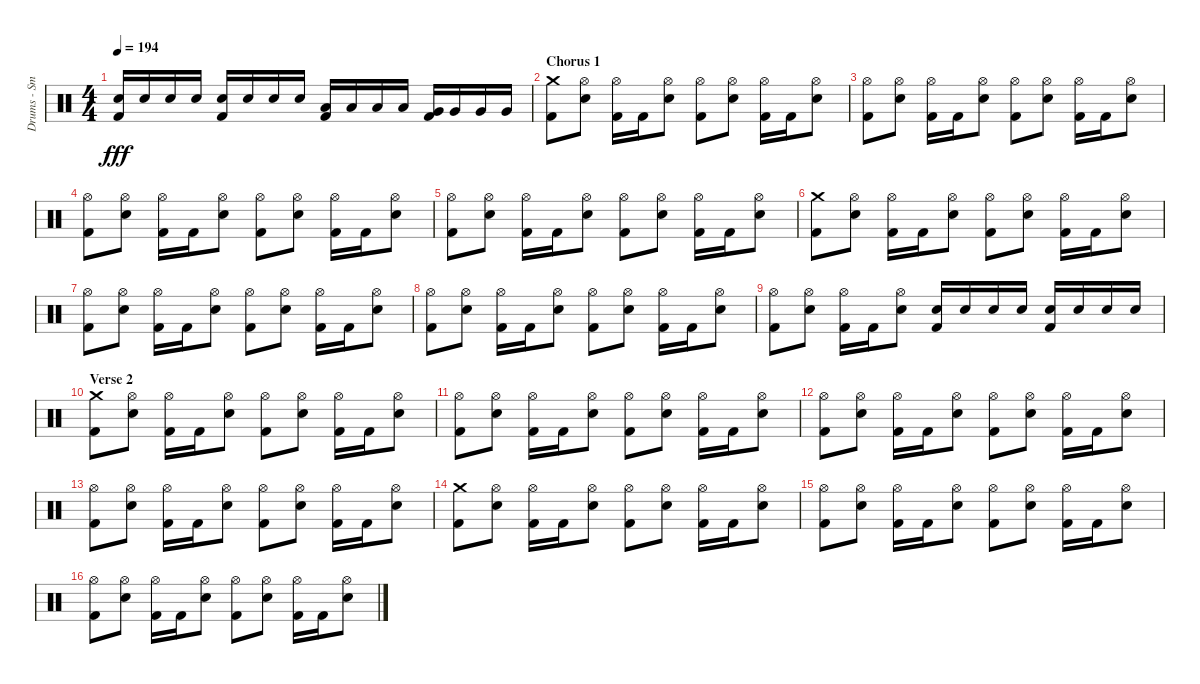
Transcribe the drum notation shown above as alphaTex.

\track ("Drums - Smelly" "Drums - Sm") {instrument percussion}
\staff {score}
\articulation defaults
\ts (4 4)
\tempo 194
\clef neutral
\ks c
("Electric Snare (hit)" "Kick (hit) 2").16{dy fff} "Electric Snare (hit)".16 "Electric Snare (hit)".16 "Electric Snare (hit)".16 ("Electric Snare (hit)" "Kick (hit) 2").16 "Electric Snare (hit)".16 "Electric Snare (hit)".16 "Electric Snare (hit)".16 ("Low Tom (hit)" "Kick (hit) 2").16 "Low Tom (hit)".16 "Low Tom (hit)".16 "Low Tom (hit)".16 ("Very Low Tom (hit)" "Kick (hit) 2").16 "Very Low Tom (hit)".16 "Very Low Tom (hit)".16 "Very Low Tom (hit)".16 |
\section ("" "Chorus 1")
("Kick (hit) 2" "Crash medium (hit)").8 ("Electric Snare (hit)" "Hi-Hat (open)").8 ("Kick (hit) 2" "Hi-Hat (open)").16 "Kick (hit) 2".16 ("Electric Snare (hit)" "Hi-Hat (open)").8 ("Kick (hit) 2" "Hi-Hat (open)").8 ("Electric Snare (hit)" "Hi-Hat (open)").8 ("Kick (hit) 2" "Hi-Hat (open)").16 "Kick (hit) 2".16 ("Electric Snare (hit)" "Hi-Hat (open)").8 |
("Kick (hit) 2" "Hi-Hat (open)").8 ("Electric Snare (hit)" "Hi-Hat (open)").8 ("Kick (hit) 2" "Hi-Hat (open)").16 "Kick (hit) 2".16 ("Electric Snare (hit)" "Hi-Hat (open)").8 ("Kick (hit) 2" "Hi-Hat (open)").8 ("Electric Snare (hit)" "Hi-Hat (open)").8 ("Kick (hit) 2" "Hi-Hat (open)").16 "Kick (hit) 2".16 ("Electric Snare (hit)" "Hi-Hat (open)").8 |
("Kick (hit) 2" "Hi-Hat (open)").8 ("Electric Snare (hit)" "Hi-Hat (open)").8 ("Kick (hit) 2" "Hi-Hat (open)").16 "Kick (hit) 2".16 ("Electric Snare (hit)" "Hi-Hat (open)").8 ("Kick (hit) 2" "Hi-Hat (open)").8 ("Electric Snare (hit)" "Hi-Hat (open)").8 ("Kick (hit) 2" "Hi-Hat (open)").16 "Kick (hit) 2".16 ("Electric Snare (hit)" "Hi-Hat (open)").8 |
("Kick (hit) 2" "Hi-Hat (open)").8 ("Electric Snare (hit)" "Hi-Hat (open)").8 ("Kick (hit) 2" "Hi-Hat (open)").16 "Kick (hit) 2".16 ("Electric Snare (hit)" "Hi-Hat (open)").8 ("Kick (hit) 2" "Hi-Hat (open)").8 ("Electric Snare (hit)" "Hi-Hat (open)").8 ("Kick (hit) 2" "Hi-Hat (open)").16 "Kick (hit) 2".16 ("Electric Snare (hit)" "Hi-Hat (open)").8 |
("Kick (hit) 2" "Crash medium (hit)").8 ("Electric Snare (hit)" "Hi-Hat (open)").8 ("Kick (hit) 2" "Hi-Hat (open)").16 "Kick (hit) 2".16 ("Electric Snare (hit)" "Hi-Hat (open)").8 ("Kick (hit) 2" "Hi-Hat (open)").8 ("Electric Snare (hit)" "Hi-Hat (open)").8 ("Kick (hit) 2" "Hi-Hat (open)").16 "Kick (hit) 2".16 ("Electric Snare (hit)" "Hi-Hat (open)").8 |
("Kick (hit) 2" "Hi-Hat (open)").8 ("Electric Snare (hit)" "Hi-Hat (open)").8 ("Kick (hit) 2" "Hi-Hat (open)").16 "Kick (hit) 2".16 ("Electric Snare (hit)" "Hi-Hat (open)").8 ("Kick (hit) 2" "Hi-Hat (open)").8 ("Electric Snare (hit)" "Hi-Hat (open)").8 ("Kick (hit) 2" "Hi-Hat (open)").16 "Kick (hit) 2".16 ("Electric Snare (hit)" "Hi-Hat (open)").8 |
("Kick (hit) 2" "Hi-Hat (open)").8 ("Electric Snare (hit)" "Hi-Hat (open)").8 ("Kick (hit) 2" "Hi-Hat (open)").16 "Kick (hit) 2".16 ("Electric Snare (hit)" "Hi-Hat (open)").8 ("Kick (hit) 2" "Hi-Hat (open)").8 ("Electric Snare (hit)" "Hi-Hat (open)").8 ("Kick (hit) 2" "Hi-Hat (open)").16 "Kick (hit) 2".16 ("Electric Snare (hit)" "Hi-Hat (open)").8 |
("Kick (hit) 2" "Hi-Hat (open)").8 ("Electric Snare (hit)" "Hi-Hat (open)").8 ("Kick (hit) 2" "Hi-Hat (open)").16 "Kick (hit) 2".16 ("Electric Snare (hit)" "Hi-Hat (open)").8 ("Electric Snare (hit)" "Kick (hit) 2").16 "Electric Snare (hit)".16 "Electric Snare (hit)".16 "Electric Snare (hit)".16 ("Electric Snare (hit)" "Kick (hit) 2").16 "Electric Snare (hit)".16 "Electric Snare (hit)".16 "Electric Snare (hit)".16 |
\section ("" "Verse 2")
("Kick (hit) 2" "Crash medium (hit)").8 ("Electric Snare (hit)" "Hi-Hat (open)").8 ("Kick (hit) 2" "Hi-Hat (open)").16 "Kick (hit) 2".16 ("Electric Snare (hit)" "Hi-Hat (open)").8 ("Kick (hit) 2" "Hi-Hat (open)").8 ("Electric Snare (hit)" "Hi-Hat (open)").8 ("Kick (hit) 2" "Hi-Hat (open)").16 "Kick (hit) 2".16 ("Electric Snare (hit)" "Hi-Hat (open)").8 |
("Kick (hit) 2" "Hi-Hat (open)").8 ("Electric Snare (hit)" "Hi-Hat (open)").8 ("Kick (hit) 2" "Hi-Hat (open)").16 "Kick (hit) 2".16 ("Electric Snare (hit)" "Hi-Hat (open)").8 ("Kick (hit) 2" "Hi-Hat (open)").8 ("Electric Snare (hit)" "Hi-Hat (open)").8 ("Kick (hit) 2" "Hi-Hat (open)").16 "Kick (hit) 2".16 ("Electric Snare (hit)" "Hi-Hat (open)").8 |
("Kick (hit) 2" "Hi-Hat (open)").8 ("Electric Snare (hit)" "Hi-Hat (open)").8 ("Kick (hit) 2" "Hi-Hat (open)").16 "Kick (hit) 2".16 ("Electric Snare (hit)" "Hi-Hat (open)").8 ("Kick (hit) 2" "Hi-Hat (open)").8 ("Electric Snare (hit)" "Hi-Hat (open)").8 ("Kick (hit) 2" "Hi-Hat (open)").16 "Kick (hit) 2".16 ("Electric Snare (hit)" "Hi-Hat (open)").8 |
("Kick (hit) 2" "Hi-Hat (open)").8 ("Electric Snare (hit)" "Hi-Hat (open)").8 ("Kick (hit) 2" "Hi-Hat (open)").16 "Kick (hit) 2".16 ("Electric Snare (hit)" "Hi-Hat (open)").8 ("Kick (hit) 2" "Hi-Hat (open)").8 ("Electric Snare (hit)" "Hi-Hat (open)").8 ("Kick (hit) 2" "Hi-Hat (open)").16 "Kick (hit) 2".16 ("Electric Snare (hit)" "Hi-Hat (open)").8 |
("Kick (hit) 2" "Crash medium (hit)").8 ("Electric Snare (hit)" "Hi-Hat (open)").8 ("Kick (hit) 2" "Hi-Hat (open)").16 "Kick (hit) 2".16 ("Electric Snare (hit)" "Hi-Hat (open)").8 ("Kick (hit) 2" "Hi-Hat (open)").8 ("Electric Snare (hit)" "Hi-Hat (open)").8 ("Kick (hit) 2" "Hi-Hat (open)").16 "Kick (hit) 2".16 ("Electric Snare (hit)" "Hi-Hat (open)").8 |
("Kick (hit) 2" "Hi-Hat (open)").8 ("Electric Snare (hit)" "Hi-Hat (open)").8 ("Kick (hit) 2" "Hi-Hat (open)").16 "Kick (hit) 2".16 ("Electric Snare (hit)" "Hi-Hat (open)").8 ("Kick (hit) 2" "Hi-Hat (open)").8 ("Electric Snare (hit)" "Hi-Hat (open)").8 ("Kick (hit) 2" "Hi-Hat (open)").16 "Kick (hit) 2".16 ("Electric Snare (hit)" "Hi-Hat (open)").8 |
("Kick (hit) 2" "Hi-Hat (open)").8 ("Electric Snare (hit)" "Hi-Hat (open)").8 ("Kick (hit) 2" "Hi-Hat (open)").16 "Kick (hit) 2".16 ("Electric Snare (hit)" "Hi-Hat (open)").8 ("Kick (hit) 2" "Hi-Hat (open)").8 ("Electric Snare (hit)" "Hi-Hat (open)").8 ("Kick (hit) 2" "Hi-Hat (open)").16 "Kick (hit) 2".16 ("Electric Snare (hit)" "Hi-Hat (open)").8
